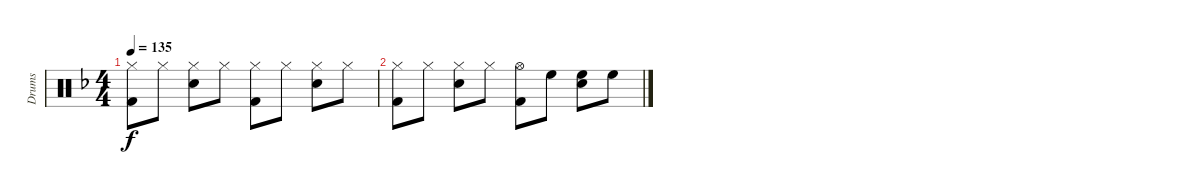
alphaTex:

\track ("Drums" "Drums") {instrument percussion}
\staff {score}
\articulation defaults
\ts (4 4)
\tempo 135
\clef neutral
\ks f
("Hi-Hat (closed)" "Kick (hit) 2").8{dy f} "Hi-Hat (closed)".8 ("Hi-Hat (closed)" "Snare (hit) 2").8 "Hi-Hat (closed)".8 ("Hi-Hat (closed)" "Kick (hit) 2").8 "Hi-Hat (closed)".8 ("Hi-Hat (closed)" "Snare (hit) 2").8 "Hi-Hat (closed)".8 |
("Hi-Hat (closed)" "Kick (hit) 2").8 "Hi-Hat (closed)".8 ("Hi-Hat (closed)" "Snare (hit) 2").8 "Hi-Hat (closed)".8 ("Hi-Hat (open)" "Kick (hit) 2").8 "High Floor Tom (hit)".8 ("High Floor Tom (hit)" "Snare (hit) 2").8 "High Floor Tom (hit)".8
